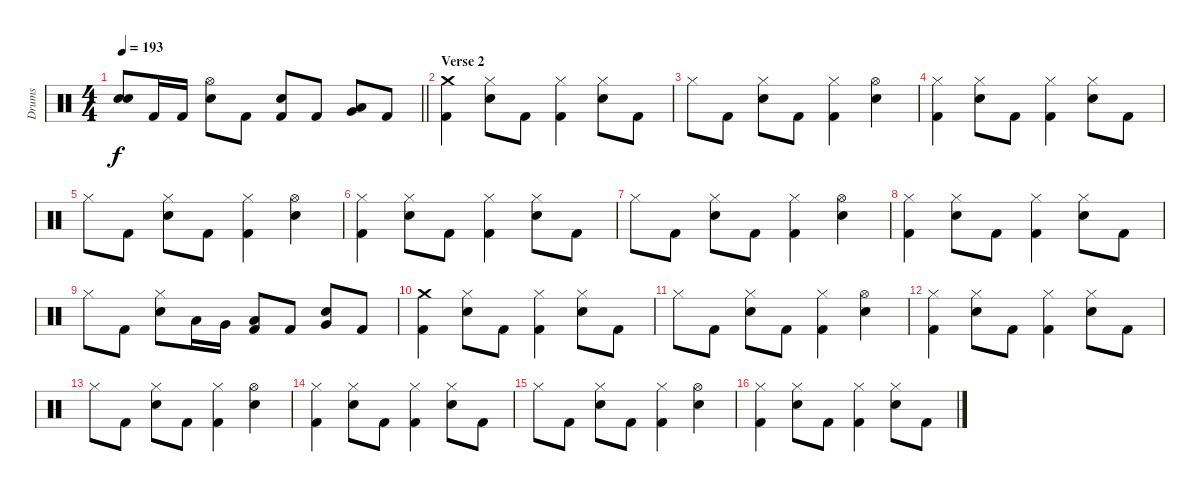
\track ("Drums" "Drums") {instrument percussion}
\staff {score}
\articulation defaults
\ts (4 4)
\tempo 193
\clef neutral
\barLineRight lightlight
\ks c
("Snare (hit)"{t} "Snare (hit)"{t}).8{dy f} "Kick (hit) 2".16 "Kick (hit) 2".16 ("Hi-Hat (open)" "Electric Snare (hit)").8 "Kick (hit) 2".8 ("Electric Snare (hit)" "Kick (hit) 2").8 "Kick (hit) 2".8 ("Low Tom (hit)" "Very Low Tom (hit)").8 "Kick (hit) 2".8 |
\section ("" "Verse 2")
("Crash medium (hit)" "Kick (hit) 2").4 ("Hi-Hat (closed)" "Electric Snare (hit)").8 "Kick (hit) 2".8 ("Hi-Hat (closed)" "Kick (hit) 2").4 ("Hi-Hat (closed)" "Electric Snare (hit)").8 "Kick (hit) 2".8 |
"Hi-Hat (closed)".8 "Kick (hit) 2".8 ("Hi-Hat (closed)" "Electric Snare (hit)").8 "Kick (hit) 2".8 ("Hi-Hat (closed)" "Kick (hit) 2").4 ("Hi-Hat (open)" "Electric Snare (hit)").4 |
("Hi-Hat (closed)" "Kick (hit) 2").4 ("Hi-Hat (closed)" "Electric Snare (hit)").8 "Kick (hit) 2".8 ("Hi-Hat (closed)" "Kick (hit) 2").4 ("Hi-Hat (closed)" "Electric Snare (hit)").8 "Kick (hit) 2".8 |
"Hi-Hat (closed)".8 "Kick (hit) 2".8 ("Hi-Hat (closed)" "Electric Snare (hit)").8 "Kick (hit) 2".8 ("Hi-Hat (closed)" "Kick (hit) 2").4 ("Hi-Hat (open)" "Electric Snare (hit)").4 |
("Hi-Hat (closed)" "Kick (hit) 2").4 ("Hi-Hat (closed)" "Electric Snare (hit)").8 "Kick (hit) 2".8 ("Hi-Hat (closed)" "Kick (hit) 2").4 ("Hi-Hat (closed)" "Electric Snare (hit)").8 "Kick (hit) 2".8 |
"Hi-Hat (closed)".8 "Kick (hit) 2".8 ("Hi-Hat (closed)" "Electric Snare (hit)").8 "Kick (hit) 2".8 ("Hi-Hat (closed)" "Kick (hit) 2").4 ("Hi-Hat (open)" "Electric Snare (hit)").4 |
("Hi-Hat (closed)" "Kick (hit) 2").4 ("Hi-Hat (closed)" "Electric Snare (hit)").8 "Kick (hit) 2".8 ("Hi-Hat (closed)" "Kick (hit) 2").4 ("Hi-Hat (closed)" "Electric Snare (hit)").8 "Kick (hit) 2".8 |
"Hi-Hat (closed)".8 "Kick (hit) 2".8 ("Hi-Hat (closed)" "Electric Snare (hit)").8 "Low Tom (hit)".16 "Very Low Tom (hit)".16 ("Low Floor Tom (hit)" "Kick (hit) 2").8 "Kick (hit) 2".8 ("Very Low Tom (hit)" "Electric Snare (hit)").8 "Kick (hit) 2".8 |
("Crash medium (hit)" "Kick (hit) 2").4 ("Hi-Hat (closed)" "Electric Snare (hit)").8 "Kick (hit) 2".8 ("Hi-Hat (closed)" "Kick (hit) 2").4 ("Hi-Hat (closed)" "Electric Snare (hit)").8 "Kick (hit) 2".8 |
"Hi-Hat (closed)".8 "Kick (hit) 2".8 ("Hi-Hat (closed)" "Electric Snare (hit)").8 "Kick (hit) 2".8 ("Hi-Hat (closed)" "Kick (hit) 2").4 ("Hi-Hat (open)" "Electric Snare (hit)").4 |
("Hi-Hat (closed)" "Kick (hit) 2").4 ("Hi-Hat (closed)" "Electric Snare (hit)").8 "Kick (hit) 2".8 ("Hi-Hat (closed)" "Kick (hit) 2").4 ("Hi-Hat (closed)" "Electric Snare (hit)").8 "Kick (hit) 2".8 |
"Hi-Hat (closed)".8 "Kick (hit) 2".8 ("Hi-Hat (closed)" "Electric Snare (hit)").8 "Kick (hit) 2".8 ("Hi-Hat (closed)" "Kick (hit) 2").4 ("Hi-Hat (open)" "Electric Snare (hit)").4 |
("Hi-Hat (closed)" "Kick (hit) 2").4 ("Hi-Hat (closed)" "Electric Snare (hit)").8 "Kick (hit) 2".8 ("Hi-Hat (closed)" "Kick (hit) 2").4 ("Hi-Hat (closed)" "Electric Snare (hit)").8 "Kick (hit) 2".8 |
"Hi-Hat (closed)".8 "Kick (hit) 2".8 ("Hi-Hat (closed)" "Electric Snare (hit)").8 "Kick (hit) 2".8 ("Hi-Hat (closed)" "Kick (hit) 2").4 ("Hi-Hat (open)" "Electric Snare (hit)").4 |
("Hi-Hat (closed)" "Kick (hit) 2").4 ("Hi-Hat (closed)" "Electric Snare (hit)").8 "Kick (hit) 2".8 ("Hi-Hat (closed)" "Kick (hit) 2").4 ("Hi-Hat (closed)" "Electric Snare (hit)").8 "Kick (hit) 2".8
